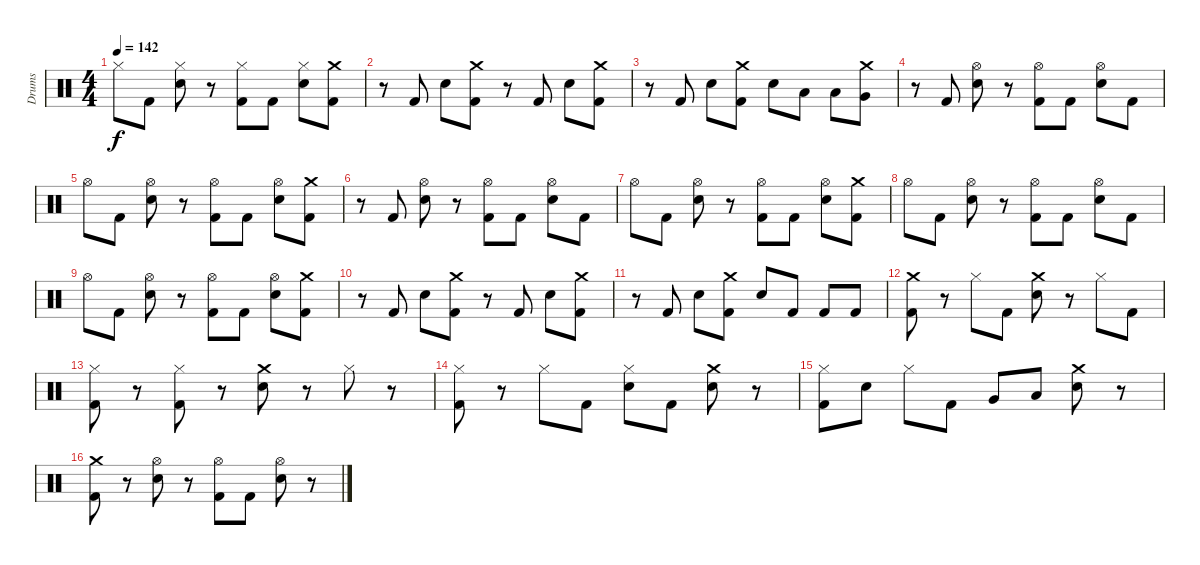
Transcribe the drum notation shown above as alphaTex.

\track ("Drums" "Drums") {instrument percussion}
\staff {score}
\articulation defaults
\ts (4 4)
\tempo 142
\clef neutral
\ks c "Hi-Hat (closed)".8{dy f} "Kick (hit) 2".8
("Hi-Hat (closed)" "Electric Snare (hit)").8 r.8 ("Hi-Hat (closed)" "Kick (hit) 2").8 "Kick (hit) 2".8 ("Hi-Hat (closed)" "Electric Snare (hit)").8 ("Crash medium (hit)" "Kick (hit) 2").8 |
r.8 "Kick (hit) 2".8 "Electric Snare (hit)".8 ("Crash medium (hit)" "Kick (hit) 2").8 r.8 "Kick (hit) 2".8 "Electric Snare (hit)".8 ("Crash medium (hit)" "Kick (hit) 2").8 |
r.8 "Kick (hit) 2".8 "Electric Snare (hit)".8 ("Crash medium (hit)" "Kick (hit) 2").8 "Electric Snare (hit)".8 "Low Tom (hit)".8 "Low Tom (hit)".8 ("Crash medium (hit)" "Very Low Tom (hit)").8 |
r.8 "Kick (hit) 2".8 ("Hi-Hat (open)" "Electric Snare (hit)").8 r.8 ("Hi-Hat (open)" "Kick (hit) 2").8 "Kick (hit) 2".8 ("Hi-Hat (open)" "Electric Snare (hit)").8 "Kick (hit) 2".8 |
"Hi-Hat (open)".8 "Kick (hit) 2".8 ("Hi-Hat (open)" "Electric Snare (hit)").8 r.8 ("Hi-Hat (open)" "Kick (hit) 2").8 "Kick (hit) 2".8 ("Hi-Hat (open)" "Electric Snare (hit)").8 ("Crash medium (hit)" "Kick (hit) 2").8 |
r.8 "Kick (hit) 2".8 ("Hi-Hat (open)" "Electric Snare (hit)").8 r.8 ("Hi-Hat (open)" "Kick (hit) 2").8 "Kick (hit) 2".8 ("Hi-Hat (open)" "Electric Snare (hit)").8 "Kick (hit) 2".8 |
"Hi-Hat (open)".8 "Kick (hit) 2".8 ("Hi-Hat (open)" "Electric Snare (hit)").8 r.8 ("Hi-Hat (open)" "Kick (hit) 2").8 "Kick (hit) 2".8 ("Hi-Hat (open)" "Electric Snare (hit)").8 ("Crash medium (hit)" "Kick (hit) 2").8 |
"Hi-Hat (open)".8 "Kick (hit) 2".8 ("Hi-Hat (open)" "Electric Snare (hit)").8 r.8 ("Hi-Hat (open)" "Kick (hit) 2").8 "Kick (hit) 2".8 ("Hi-Hat (open)" "Electric Snare (hit)").8 "Kick (hit) 2".8 |
"Hi-Hat (open)".8 "Kick (hit) 2".8 ("Hi-Hat (open)" "Electric Snare (hit)").8 r.8 ("Hi-Hat (open)" "Kick (hit) 2").8 "Kick (hit) 2".8 ("Hi-Hat (open)" "Electric Snare (hit)").8 ("Crash medium (hit)" "Kick (hit) 2").8 |
r.8 "Kick (hit) 2".8 "Electric Snare (hit)".8 ("Crash medium (hit)" "Kick (hit) 2").8 r.8 "Kick (hit) 2".8 "Electric Snare (hit)".8 ("Crash medium (hit)" "Kick (hit) 2").8 |
r.8 "Kick (hit) 2".8 "Electric Snare (hit)".8 ("Crash medium (hit)" "Kick (hit) 2").8 "Electric Snare (hit)".8 "Kick (hit) 2".8 "Kick (hit) 2".8 "Kick (hit) 2".8 |
("Crash medium (hit)" "Kick (hit) 2").8 r.8 "Hi-Hat (closed)".8 "Kick (hit) 2".8 ("Crash medium (hit)" "Electric Snare (hit)").8 r.8 "Hi-Hat (closed)".8 "Kick (hit) 2".8 |
("Hi-Hat (closed)" "Kick (hit) 2").8 r.8 ("Hi-Hat (closed)" "Kick (hit) 2").8 r.8 ("Crash medium (hit)" "Electric Snare (hit)").8 r.8 "Hi-Hat (closed)".8 r.8 |
("Hi-Hat (closed)" "Kick (hit) 2").8 r.8 "Hi-Hat (closed)".8 "Kick (hit) 2".8 ("Hi-Hat (closed)" "Electric Snare (hit)").8 "Kick (hit) 2".8 ("Crash medium (hit)" "Electric Snare (hit)").8 r.8 |
("Hi-Hat (closed)" "Kick (hit) 2").8 "Electric Snare (hit)".8 "Hi-Hat (closed)".8 "Kick (hit) 2".8 "Very Low Tom (hit)".8 "Low Floor Tom (hit)".8 ("Crash medium (hit)" "Electric Snare (hit)").8 r.8 |
("Crash medium (hit)" "Kick (hit) 2").8 r.8 ("Hi-Hat (open)" "Electric Snare (hit)").8 r.8 ("Hi-Hat (open)" "Kick (hit) 2").8 "Kick (hit) 2".8 ("Hi-Hat (open)" "Electric Snare (hit)").8 r.8
